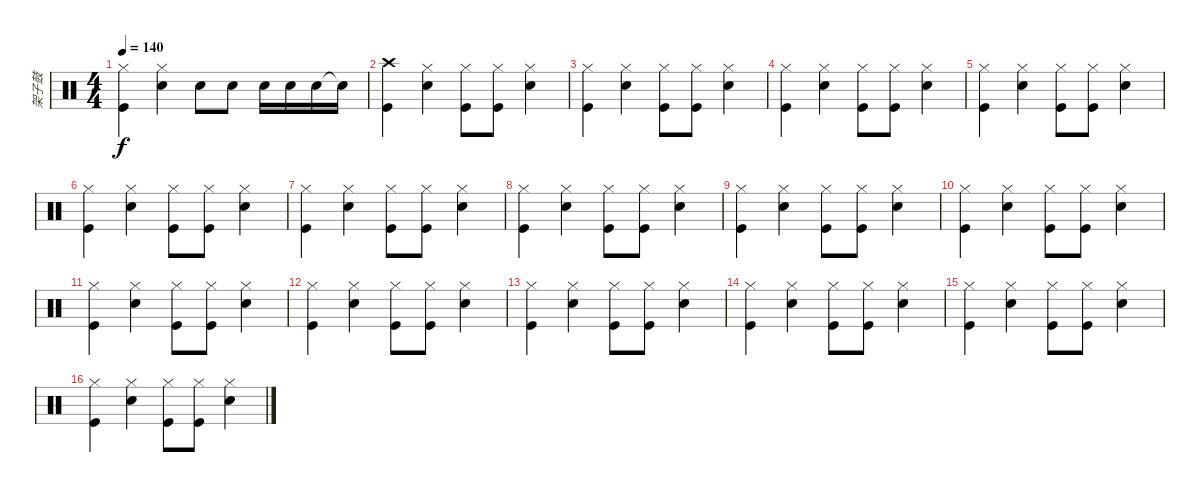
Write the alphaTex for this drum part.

\track ("架子鼓" "架子鼓") {instrument percussion}
\staff {score}
\articulation defaults
\ts (4 4)
\tempo 140
\clef neutral
\ks c
("Hi-Hat (closed)" "Kick (hit)").4{dy f} ("Hi-Hat (closed)" "Electric Snare (hit)").4 "Electric Snare (hit)".8 "Electric Snare (hit)".8 "Electric Snare (hit)".16 "Electric Snare (hit)".16 "Electric Snare (hit)".16 "Snare (hit)"{t}.16 |
("Crash high (hit)" "Kick (hit)").4 ("Hi-Hat (closed)" "Electric Snare (hit)").4 ("Hi-Hat (closed)" "Kick (hit)").8 ("Hi-Hat (closed)" "Kick (hit)").8 ("Hi-Hat (closed)" "Electric Snare (hit)").4 |
("Hi-Hat (closed)" "Kick (hit)").4 ("Hi-Hat (closed)" "Electric Snare (hit)").4 ("Hi-Hat (closed)" "Kick (hit)").8 ("Hi-Hat (closed)" "Kick (hit)").8 ("Hi-Hat (closed)" "Electric Snare (hit)").4 |
("Hi-Hat (closed)" "Kick (hit)").4 ("Hi-Hat (closed)" "Electric Snare (hit)").4 ("Hi-Hat (closed)" "Kick (hit)").8 ("Hi-Hat (closed)" "Kick (hit)").8 ("Hi-Hat (closed)" "Electric Snare (hit)").4 |
("Hi-Hat (closed)" "Kick (hit)").4 ("Hi-Hat (closed)" "Electric Snare (hit)").4 ("Hi-Hat (closed)" "Kick (hit)").8 ("Hi-Hat (closed)" "Kick (hit)").8 ("Hi-Hat (closed)" "Electric Snare (hit)").4 |
("Hi-Hat (closed)" "Kick (hit)").4 ("Hi-Hat (closed)" "Electric Snare (hit)").4 ("Hi-Hat (closed)" "Kick (hit)").8 ("Hi-Hat (closed)" "Kick (hit)").8 ("Hi-Hat (closed)" "Electric Snare (hit)").4 |
("Hi-Hat (closed)" "Kick (hit)").4 ("Hi-Hat (closed)" "Electric Snare (hit)").4 ("Hi-Hat (closed)" "Kick (hit)").8 ("Hi-Hat (closed)" "Kick (hit)").8 ("Hi-Hat (closed)" "Electric Snare (hit)").4 |
("Hi-Hat (closed)" "Kick (hit)").4 ("Hi-Hat (closed)" "Electric Snare (hit)").4 ("Hi-Hat (closed)" "Kick (hit)").8 ("Hi-Hat (closed)" "Kick (hit)").8 ("Hi-Hat (closed)" "Electric Snare (hit)").4 |
("Hi-Hat (closed)" "Kick (hit)").4 ("Hi-Hat (closed)" "Electric Snare (hit)").4 ("Hi-Hat (closed)" "Kick (hit)").8 ("Hi-Hat (closed)" "Kick (hit)").8 ("Hi-Hat (closed)" "Electric Snare (hit)").4 |
("Hi-Hat (closed)" "Kick (hit)").4 ("Hi-Hat (closed)" "Electric Snare (hit)").4 ("Hi-Hat (closed)" "Kick (hit)").8 ("Hi-Hat (closed)" "Kick (hit)").8 ("Hi-Hat (closed)" "Electric Snare (hit)").4 |
("Hi-Hat (closed)" "Kick (hit)").4 ("Hi-Hat (closed)" "Electric Snare (hit)").4 ("Hi-Hat (closed)" "Kick (hit)").8 ("Hi-Hat (closed)" "Kick (hit)").8 ("Hi-Hat (closed)" "Electric Snare (hit)").4 |
("Hi-Hat (closed)" "Kick (hit)").4 ("Hi-Hat (closed)" "Electric Snare (hit)").4 ("Hi-Hat (closed)" "Kick (hit)").8 ("Hi-Hat (closed)" "Kick (hit)").8 ("Hi-Hat (closed)" "Electric Snare (hit)").4 |
("Hi-Hat (closed)" "Kick (hit)").4 ("Hi-Hat (closed)" "Electric Snare (hit)").4 ("Hi-Hat (closed)" "Kick (hit)").8 ("Hi-Hat (closed)" "Kick (hit)").8 ("Hi-Hat (closed)" "Electric Snare (hit)").4 |
("Hi-Hat (closed)" "Kick (hit)").4 ("Hi-Hat (closed)" "Electric Snare (hit)").4 ("Hi-Hat (closed)" "Kick (hit)").8 ("Hi-Hat (closed)" "Kick (hit)").8 ("Hi-Hat (closed)" "Electric Snare (hit)").4 |
("Hi-Hat (closed)" "Kick (hit)").4 ("Hi-Hat (closed)" "Electric Snare (hit)").4 ("Hi-Hat (closed)" "Kick (hit)").8 ("Hi-Hat (closed)" "Kick (hit)").8 ("Hi-Hat (closed)" "Electric Snare (hit)").4 |
("Hi-Hat (closed)" "Kick (hit)").4 ("Hi-Hat (closed)" "Electric Snare (hit)").4 ("Hi-Hat (closed)" "Kick (hit)").8 ("Hi-Hat (closed)" "Kick (hit)").8 ("Hi-Hat (closed)" "Electric Snare (hit)").4
